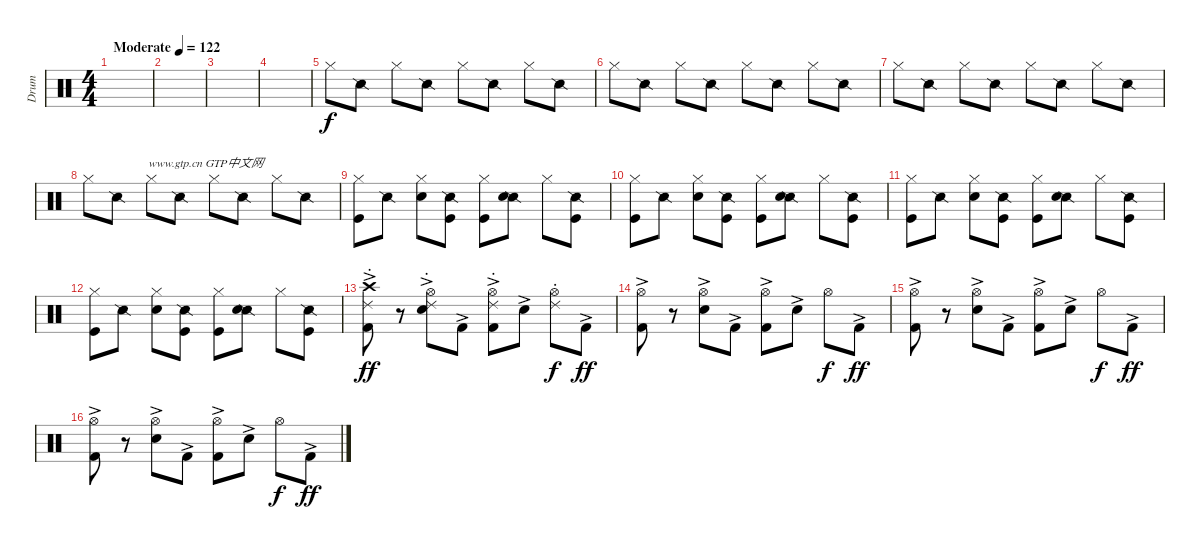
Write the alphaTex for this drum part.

\track ("Drum" "Drum") {instrument percussion}
\staff {score}
\articulation defaults
\ts (4 4)
\tempo (122 "Moderate")
\clef neutral
\ks c
|
|
|
|
"Hi-Hat (closed)".8{volume 10} "Snare (side stick) 2".8 "Hi-Hat (closed)".8 "Snare (side stick) 2".8 "Hi-Hat (closed)".8 "Snare (side stick) 2".8 "Hi-Hat (closed)".8 "Snare (side stick) 2".8 |
"Hi-Hat (closed)".8 "Snare (side stick) 2".8 "Hi-Hat (closed)".8 "Snare (side stick) 2".8 "Hi-Hat (closed)".8 "Snare (side stick) 2".8 "Hi-Hat (closed)".8 "Snare (side stick) 2".8 |
"Hi-Hat (closed)".8 "Snare (side stick) 2".8 "Hi-Hat (closed)".8 "Snare (side stick) 2".8 "Hi-Hat (closed)".8 "Snare (side stick) 2".8 "Hi-Hat (closed)".8 "Snare (side stick) 2".8 |
"Hi-Hat (closed)".8{txt "                    www.gtp.cn GTP中文网"} "Snare (side stick) 2".8 "Hi-Hat (closed)".8 "Snare (side stick) 2".8 "Hi-Hat (closed)".8 "Snare (side stick) 2".8 "Hi-Hat (closed)".8 "Snare (side stick) 2".8 |
("Hi-Hat (closed)" "Kick (hit)").8 "Snare (side stick) 2".8 ("Hi-Hat (closed)" "Electric Snare (hit)").8 ("Snare (side stick) 2" "Kick (hit)").8 ("Hi-Hat (closed)" "Kick (hit)").8 ("Snare (side stick) 2" "Electric Snare (hit)").8 "Hi-Hat (closed)".8 ("Snare (side stick) 2" "Kick (hit)").8 |
("Hi-Hat (closed)" "Kick (hit)").8 "Snare (side stick) 2".8 ("Hi-Hat (closed)" "Electric Snare (hit)").8 ("Snare (side stick) 2" "Kick (hit)").8 ("Hi-Hat (closed)" "Kick (hit)").8 ("Snare (side stick) 2" "Electric Snare (hit)").8 "Hi-Hat (closed)".8 ("Snare (side stick) 2" "Kick (hit)").8 |
("Hi-Hat (closed)" "Kick (hit)").8 "Snare (side stick) 2".8 ("Hi-Hat (closed)" "Electric Snare (hit)").8 ("Snare (side stick) 2" "Kick (hit)").8 ("Hi-Hat (closed)" "Kick (hit)").8 ("Snare (side stick) 2" "Electric Snare (hit)").8 "Hi-Hat (closed)".8 ("Snare (side stick) 2" "Kick (hit)").8 |
("Hi-Hat (closed)" "Kick (hit)").8 "Snare (side stick) 2".8 ("Hi-Hat (closed)" "Electric Snare (hit)").8 ("Snare (side stick) 2" "Kick (hit)").8 ("Hi-Hat (closed)" "Kick (hit)").8 ("Snare (side stick) 2" "Electric Snare (hit)").8 "Hi-Hat (closed)".8 ("Snare (side stick) 2" "Kick (hit)").8 |
("Crash high (hit)" "Kick (hit) 2"{ac} "Ride (choke) 2").8{dy ff volume 16} r.8 ("Hi-Hat (open)" "Electric Snare (hit)"{ac} "Ride (choke) 2").8 "Kick (hit) 2"{ac}.8 ("Hi-Hat (open)" "Kick (hit) 2"{ac} "Ride (choke) 2").8 "Electric Snare (hit)"{ac}.8 ("Hi-Hat (open)" "Ride (choke) 2").8{dy f} "Kick (hit) 2"{ac}.8{dy ff} |
("Hi-Hat (open)" "Kick (hit) 2"{ac}).8 r.8 ("Hi-Hat (open)" "Electric Snare (hit)"{ac}).8 "Kick (hit) 2"{ac}.8 ("Hi-Hat (open)" "Kick (hit) 2"{ac}).8 "Electric Snare (hit)"{ac}.8 "Hi-Hat (open)".8{dy f} "Kick (hit) 2"{ac}.8{dy ff} |
("Hi-Hat (open)" "Kick (hit) 2"{ac}).8 r.8 ("Hi-Hat (open)" "Electric Snare (hit)"{ac}).8 "Kick (hit) 2"{ac}.8 ("Hi-Hat (open)" "Kick (hit) 2"{ac}).8 "Electric Snare (hit)"{ac}.8 "Hi-Hat (open)".8{dy f} "Kick (hit) 2"{ac}.8{dy ff} |
("Hi-Hat (open)" "Kick (hit) 2"{ac}).8 r.8 ("Hi-Hat (open)" "Electric Snare (hit)"{ac}).8 "Kick (hit) 2"{ac}.8 ("Hi-Hat (open)" "Kick (hit) 2"{ac}).8 "Electric Snare (hit)"{ac}.8 "Hi-Hat (open)".8{dy f} "Kick (hit) 2"{ac}.8{dy ff}
